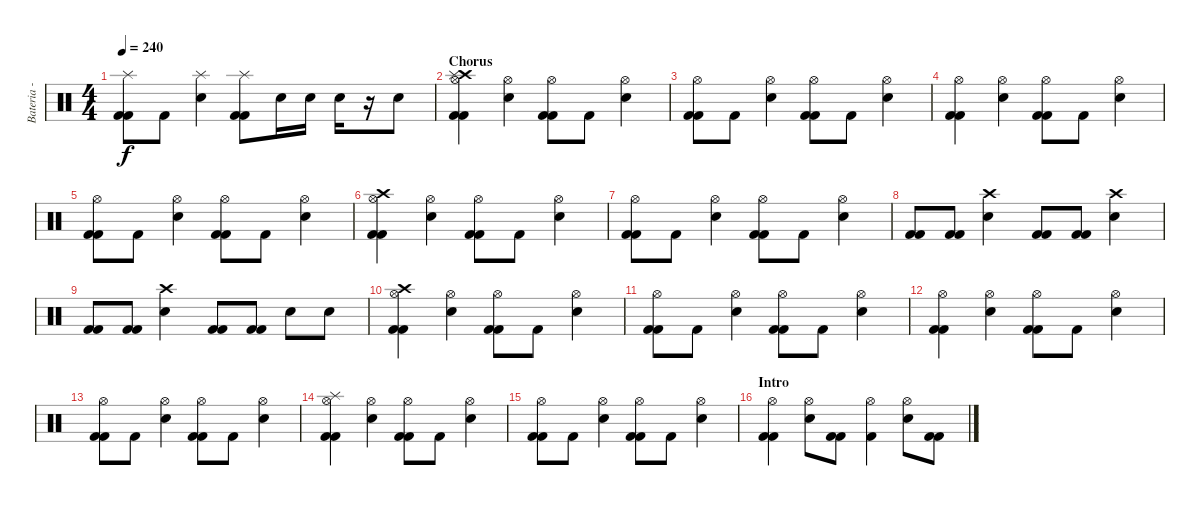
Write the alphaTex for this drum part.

\track ("Bateria - Larzon" "Bateria - ") {instrument percussion}
\staff {score}
\articulation defaults
\ts (4 4)
\tempo 240
\clef neutral
\ks c
("Kick (hit) 2" "Kick (hit) 2" "Splash (hit)").8{dy f volume 16} "Kick (hit) 2".8 ("Snare (hit) 2" "Splash (hit)").4 ("Kick (hit) 2" "Kick (hit) 2" "Splash (hit)").8 "Snare (hit) 2".16 "Snare (hit) 2".16 "Snare (hit) 2".16 r.16 "Snare (hit) 2".8 |
\section ("" "Chorus")
("Kick (hit) 2" "Kick (hit) 2" "Crash high (hit)" "Splash (hit)" "Hi-Hat (open)").4 ("Snare (hit) 2" "Hi-Hat (open)").4 ("Kick (hit) 2" "Hi-Hat (open)" "Kick (hit) 2").8{volume 12} "Kick (hit) 2".8 ("Snare (hit) 2" "Hi-Hat (open)").4{volume 12} |
("Kick (hit) 2" "Kick (hit) 2" "Hi-Hat (open)").8{volume 16} "Kick (hit) 2".8 ("Snare (hit) 2" "Hi-Hat (open)").4 ("Kick (hit) 2" "Kick (hit) 2" "Hi-Hat (open)").8{volume 12} "Kick (hit) 2".8 ("Snare (hit) 2" "Hi-Hat (open)").4{volume 12} |
("Kick (hit) 2" "Kick (hit) 2" "Hi-Hat (open)").4{volume 16} ("Snare (hit) 2" "Hi-Hat (open)").4 ("Kick (hit) 2" "Hi-Hat (open)" "Kick (hit) 2").8{volume 12} "Kick (hit) 2".8 ("Snare (hit) 2" "Hi-Hat (open)").4{volume 12} |
("Kick (hit) 2" "Kick (hit) 2" "Hi-Hat (open)").8{volume 16} "Kick (hit) 2".8 ("Snare (hit) 2" "Hi-Hat (open)").4 ("Kick (hit) 2" "Kick (hit) 2" "Hi-Hat (open)").8{volume 12} "Kick (hit) 2".8 ("Snare (hit) 2" "Hi-Hat (open)").4{volume 12} |
("Kick (hit) 2" "Kick (hit) 2" "Crash high (hit)" "Hi-Hat (open)").4{volume 16} ("Snare (hit) 2" "Hi-Hat (open)").4 ("Kick (hit) 2" "Hi-Hat (open)" "Kick (hit) 2").8{volume 12} "Kick (hit) 2".8 ("Snare (hit) 2" "Hi-Hat (open)").4{volume 12} |
("Kick (hit) 2" "Kick (hit) 2" "Hi-Hat (open)").8{volume 16} "Kick (hit) 2".8 ("Snare (hit) 2" "Hi-Hat (open)").4 ("Kick (hit) 2" "Kick (hit) 2" "Hi-Hat (open)").8{volume 12} "Kick (hit) 2".8 ("Snare (hit) 2" "Hi-Hat (open)").4{volume 12} |
("Kick (hit) 2" "Kick (hit) 2").8{volume 16} ("Kick (hit) 2" "Kick (hit) 2").8 ("Snare (hit) 2" "Crash high (hit)").4 ("Kick (hit) 2" "Kick (hit) 2").8 ("Kick (hit) 2" "Kick (hit) 2").8 ("Snare (hit) 2" "Crash high (hit)").4 |
("Kick (hit) 2" "Kick (hit) 2").8 ("Kick (hit) 2" "Kick (hit) 2").8 ("Snare (hit) 2" "Crash high (hit)").4 ("Kick (hit) 2" "Kick (hit) 2").8 ("Kick (hit) 2" "Kick (hit) 2").8 "Snare (hit) 2".8 "Snare (hit) 2".8 |
("Kick (hit) 2" "Kick (hit) 2" "Crash high (hit)" "Hi-Hat (open)").4 ("Snare (hit) 2" "Hi-Hat (open)").4 ("Kick (hit) 2" "Hi-Hat (open)" "Kick (hit) 2").8{volume 12} "Kick (hit) 2".8 ("Snare (hit) 2" "Hi-Hat (open)").4{volume 12} |
("Kick (hit) 2" "Kick (hit) 2" "Hi-Hat (open)").8{volume 16} "Kick (hit) 2".8 ("Snare (hit) 2" "Hi-Hat (open)").4 ("Kick (hit) 2" "Kick (hit) 2" "Hi-Hat (open)").8{volume 12} "Kick (hit) 2".8 ("Snare (hit) 2" "Hi-Hat (open)").4{volume 12} |
("Kick (hit) 2" "Kick (hit) 2" "Hi-Hat (open)").4{volume 16} ("Snare (hit) 2" "Hi-Hat (open)").4 ("Kick (hit) 2" "Hi-Hat (open)" "Kick (hit) 2").8{volume 12} "Kick (hit) 2".8 ("Snare (hit) 2" "Hi-Hat (open)").4{volume 12} |
("Kick (hit) 2" "Kick (hit) 2" "Hi-Hat (open)").8{volume 16} "Kick (hit) 2".8 ("Snare (hit) 2" "Hi-Hat (open)").4 ("Kick (hit) 2" "Kick (hit) 2" "Hi-Hat (open)").8{volume 12} "Kick (hit) 2".8 ("Snare (hit) 2" "Hi-Hat (open)").4{volume 12} |
("Kick (hit) 2" "Kick (hit) 2" "Splash (hit)" "Hi-Hat (open)").4{volume 16} ("Snare (hit) 2" "Hi-Hat (open)").4 ("Kick (hit) 2" "Hi-Hat (open)" "Kick (hit) 2").8{volume 12} "Kick (hit) 2".8 ("Snare (hit) 2" "Hi-Hat (open)").4{volume 12} |
("Kick (hit) 2" "Kick (hit) 2" "Hi-Hat (open)").8{volume 16} "Kick (hit) 2".8 ("Snare (hit) 2" "Hi-Hat (open)").4 ("Kick (hit) 2" "Kick (hit) 2" "Hi-Hat (open)").8{volume 12} "Kick (hit) 2".8 ("Snare (hit) 2" "Hi-Hat (open)").4{volume 12} |
\section ("" "Intro")
("Kick (hit) 2" "Hi-Hat (open)" "Kick (hit) 2").4{volume 16} ("Hi-Hat (open)" "Snare (hit) 2").8 ("Kick (hit) 2" "Kick (hit) 2").8 ("Kick (hit) 2" "Hi-Hat (open)").4 ("Hi-Hat (open)" "Snare (hit) 2").8 ("Kick (hit) 2" "Kick (hit) 2").8
